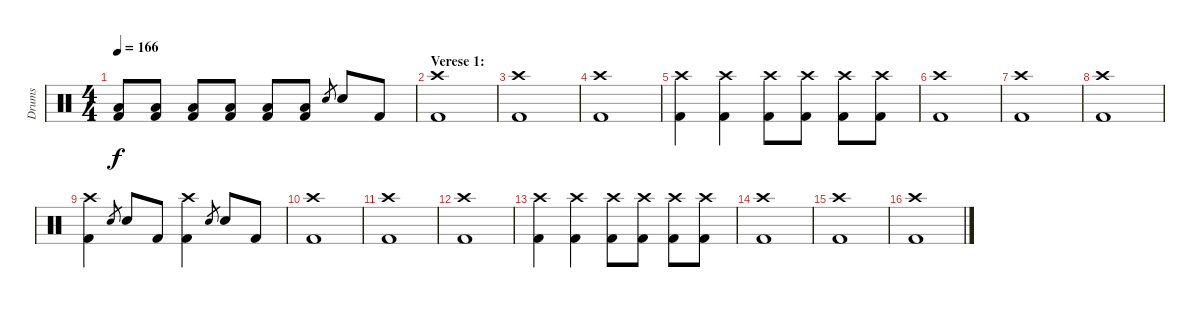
\track ("Drums" "Drums") {instrument percussion}
\staff {score}
\articulation defaults
\ts (4 4)
\tempo 166
\clef neutral
\ks c
("Low Floor Tom (hit)" "Kick (hit) 2").8{dy f} ("Low Floor Tom (hit)" "Kick (hit) 2").8 ("Low Floor Tom (hit)" "Kick (hit) 2").8 ("Low Floor Tom (hit)" "Kick (hit) 2").8 ("Low Floor Tom (hit)" "Kick (hit) 2").8 ("Low Floor Tom (hit)" "Kick (hit) 2").8 "Electric Snare (hit)".8{gr} "Electric Snare (hit)".8 "Kick (hit) 2".8 |
\section ("" "Verese 1:")
("Crash high (hit)" "Kick (hit) 2").1 |
("Crash high (hit)" "Kick (hit) 2").1 |
("Crash high (hit)" "Kick (hit) 2").1 |
("Crash high (hit)" "Kick (hit) 2").4 ("Crash high (hit)" "Kick (hit) 2").4 ("Crash high (hit)" "Kick (hit) 2").8 ("Crash high (hit)" "Kick (hit) 2").8 ("Crash high (hit)" "Kick (hit) 2").8 ("Crash high (hit)" "Kick (hit) 2").8 |
("Crash high (hit)" "Kick (hit) 2").1 |
("Crash high (hit)" "Kick (hit) 2").1 |
("Crash high (hit)" "Kick (hit) 2").1 |
("Crash high (hit)" "Kick (hit) 2").4 "Electric Snare (hit)".8{gr} "Electric Snare (hit)".8 "Kick (hit) 2".8 ("Crash high (hit)" "Kick (hit) 2").4 "Electric Snare (hit)".8{gr} "Electric Snare (hit)".8 "Kick (hit) 2".8 |
("Crash high (hit)" "Kick (hit) 2").1 |
("Crash high (hit)" "Kick (hit) 2").1 |
("Crash high (hit)" "Kick (hit) 2").1 |
("Crash high (hit)" "Kick (hit) 2").4 ("Crash high (hit)" "Kick (hit) 2").4 ("Crash high (hit)" "Kick (hit) 2").8 ("Crash high (hit)" "Kick (hit) 2").8 ("Crash high (hit)" "Kick (hit) 2").8 ("Crash high (hit)" "Kick (hit) 2").8 |
("Crash high (hit)" "Kick (hit) 2").1 |
("Crash high (hit)" "Kick (hit) 2").1 |
("Crash high (hit)" "Kick (hit) 2").1
